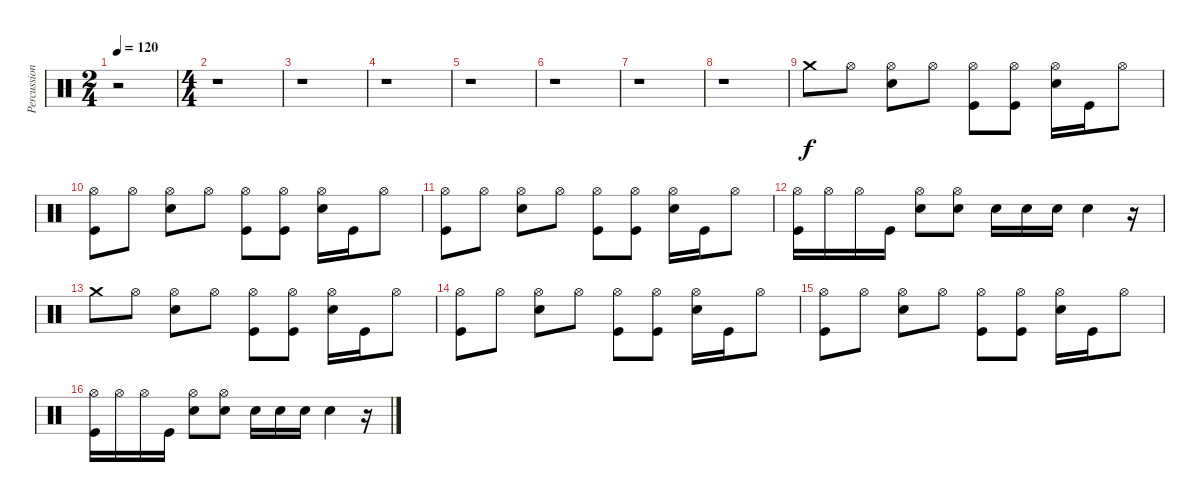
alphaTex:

\track ("Percussion" "Percussion") {instrument percussion}
\staff {score}
\articulation defaults
\ts (2 4)
\tempo 120
\clef neutral
\ks c
r.2{dy f} |
\ts (4 4)
r.1 |
r.1 |
r.1 |
r.1 |
r.1 |
r.1 |
r.1 |
"Crash medium (hit)".8 "Hi-Hat (open)".8 ("Hi-Hat (open)" "Electric Snare (hit)").8 "Hi-Hat (open)".8 ("Hi-Hat (open)" "Kick (hit)").8 ("Hi-Hat (open)" "Kick (hit)").8 ("Hi-Hat (open)" "Electric Snare (hit)").16 "Kick (hit)".16 "Hi-Hat (open)".8 |
("Hi-Hat (open)" "Kick (hit)").8 "Hi-Hat (open)".8 ("Hi-Hat (open)" "Electric Snare (hit)").8 "Hi-Hat (open)".8 ("Hi-Hat (open)" "Kick (hit)").8 ("Hi-Hat (open)" "Kick (hit)").8 ("Hi-Hat (open)" "Electric Snare (hit)").16 "Kick (hit)".16 "Hi-Hat (open)".8 |
("Hi-Hat (open)" "Kick (hit)").8 "Hi-Hat (open)".8 ("Hi-Hat (open)" "Electric Snare (hit)").8 "Hi-Hat (open)".8 ("Hi-Hat (open)" "Kick (hit)").8 ("Hi-Hat (open)" "Kick (hit)").8 ("Hi-Hat (open)" "Electric Snare (hit)").16 "Kick (hit)".16 "Hi-Hat (open)".8 |
("Hi-Hat (open)" "Kick (hit)").16 "Hi-Hat (open)".16 "Hi-Hat (open)".16 "Kick (hit)".16 ("Hi-Hat (open)" "Electric Snare (hit)").8 ("Hi-Hat (open)" "Electric Snare (hit)").8 "Electric Snare (hit)".16 "Electric Snare (hit)".16 "Electric Snare (hit)".16 "Electric Snare (hit)".4 r.16 |
"Crash medium (hit)".8 "Hi-Hat (open)".8 ("Hi-Hat (open)" "Electric Snare (hit)").8 "Hi-Hat (open)".8 ("Hi-Hat (open)" "Kick (hit)").8 ("Hi-Hat (open)" "Kick (hit)").8 ("Hi-Hat (open)" "Electric Snare (hit)").16 "Kick (hit)".16 "Hi-Hat (open)".8 |
("Hi-Hat (open)" "Kick (hit)").8 "Hi-Hat (open)".8 ("Hi-Hat (open)" "Electric Snare (hit)").8 "Hi-Hat (open)".8 ("Hi-Hat (open)" "Kick (hit)").8 ("Hi-Hat (open)" "Kick (hit)").8 ("Hi-Hat (open)" "Electric Snare (hit)").16 "Kick (hit)".16 "Hi-Hat (open)".8 |
("Hi-Hat (open)" "Kick (hit)").8 "Hi-Hat (open)".8 ("Hi-Hat (open)" "Electric Snare (hit)").8 "Hi-Hat (open)".8 ("Hi-Hat (open)" "Kick (hit)").8 ("Hi-Hat (open)" "Kick (hit)").8 ("Hi-Hat (open)" "Electric Snare (hit)").16 "Kick (hit)".16 "Hi-Hat (open)".8 |
("Hi-Hat (open)" "Kick (hit)").16 "Hi-Hat (open)".16 "Hi-Hat (open)".16 "Kick (hit)".16 ("Hi-Hat (open)" "Electric Snare (hit)").8 ("Hi-Hat (open)" "Electric Snare (hit)").8 "Electric Snare (hit)".16 "Electric Snare (hit)".16 "Electric Snare (hit)".16 "Electric Snare (hit)".4 r.16
